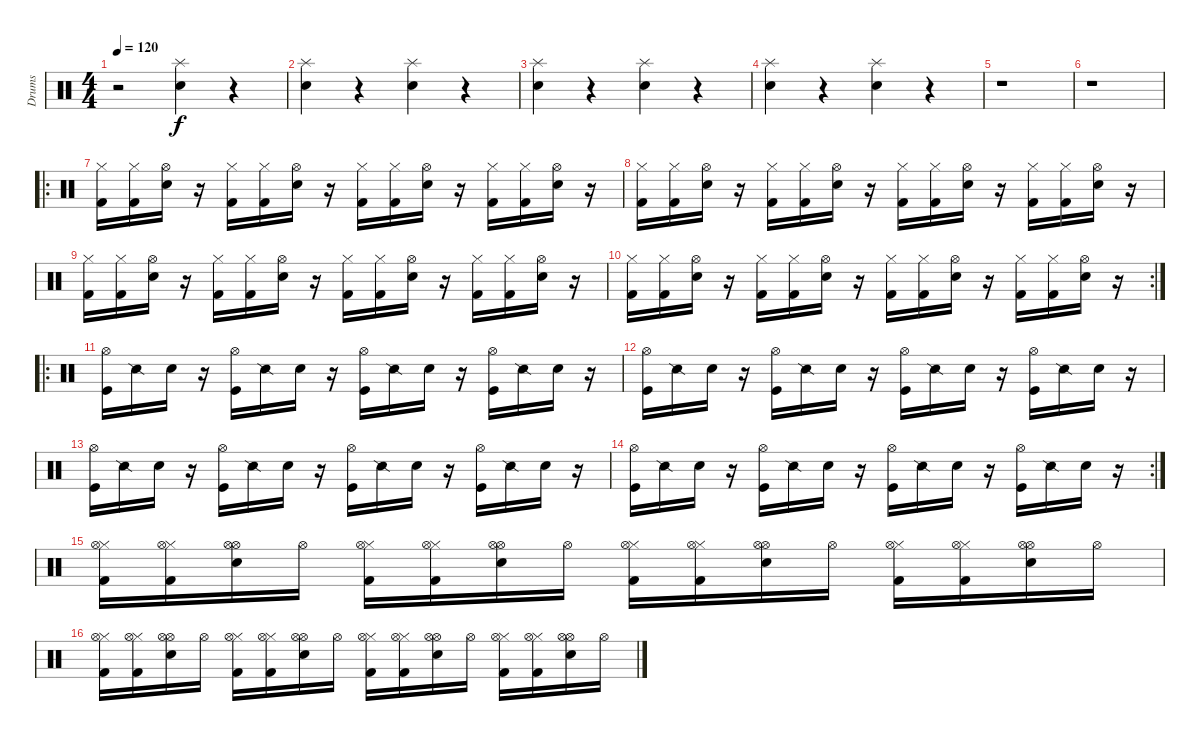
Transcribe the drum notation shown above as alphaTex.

\track ("Drums" "Drums") {instrument percussion}
\staff {score}
\articulation defaults
\ts (4 4)
\tempo 120
\tempo 100
\tempo 120
\clef neutral
\ks c
r.2{dy f} ("Splash (hit)" "Snare (hit) 2").4 r.4 |
("Splash (hit)" "Snare (hit) 2").4 r.4 ("Splash (hit)" "Snare (hit) 2").4 r.4 |
("Splash (hit)" "Snare (hit) 2").4 r.4 ("Splash (hit)" "Snare (hit) 2").4 r.4 |
("Splash (hit)" "Snare (hit) 2").4 r.4 ("Splash (hit)" "Snare (hit) 2").4 r.4 |
r.1 |
r.1 |
\ro
("Hi-Hat (closed)" "Kick (hit) 2").16 ("Hi-Hat (closed)" "Kick (hit) 2").16 ("Hi-Hat (open)" "Snare (hit) 2").16 r.16 ("Hi-Hat (closed)" "Kick (hit) 2").16 ("Hi-Hat (closed)" "Kick (hit) 2").16 ("Hi-Hat (open)" "Snare (hit) 2").16 r.16 ("Hi-Hat (closed)" "Kick (hit) 2").16 ("Hi-Hat (closed)" "Kick (hit) 2").16 ("Hi-Hat (open)" "Snare (hit) 2").16 r.16 ("Hi-Hat (closed)" "Kick (hit) 2").16 ("Hi-Hat (closed)" "Kick (hit) 2").16 ("Hi-Hat (open)" "Snare (hit) 2").16 r.16 |
("Hi-Hat (closed)" "Kick (hit) 2").16 ("Hi-Hat (closed)" "Kick (hit) 2").16 ("Hi-Hat (open)" "Snare (hit) 2").16 r.16 ("Hi-Hat (closed)" "Kick (hit) 2").16 ("Hi-Hat (closed)" "Kick (hit) 2").16 ("Hi-Hat (open)" "Snare (hit) 2").16 r.16 ("Hi-Hat (closed)" "Kick (hit) 2").16 ("Hi-Hat (closed)" "Kick (hit) 2").16 ("Hi-Hat (open)" "Snare (hit) 2").16 r.16 ("Hi-Hat (closed)" "Kick (hit) 2").16 ("Hi-Hat (closed)" "Kick (hit) 2").16 ("Hi-Hat (open)" "Snare (hit) 2").16 r.16 |
("Hi-Hat (closed)" "Kick (hit) 2").16 ("Hi-Hat (closed)" "Kick (hit) 2").16 ("Hi-Hat (open)" "Snare (hit) 2").16 r.16 ("Hi-Hat (closed)" "Kick (hit) 2").16 ("Hi-Hat (closed)" "Kick (hit) 2").16 ("Hi-Hat (open)" "Snare (hit) 2").16 r.16 ("Hi-Hat (closed)" "Kick (hit) 2").16 ("Hi-Hat (closed)" "Kick (hit) 2").16 ("Hi-Hat (open)" "Snare (hit) 2").16 r.16 ("Hi-Hat (closed)" "Kick (hit) 2").16 ("Hi-Hat (closed)" "Kick (hit) 2").16 ("Hi-Hat (open)" "Snare (hit) 2").16 r.16 |
\rc 2
("Hi-Hat (closed)" "Kick (hit) 2").16 ("Hi-Hat (closed)" "Kick (hit) 2").16 ("Hi-Hat (open)" "Snare (hit) 2").16 r.16 ("Hi-Hat (closed)" "Kick (hit) 2").16 ("Hi-Hat (closed)" "Kick (hit) 2").16 ("Hi-Hat (open)" "Snare (hit) 2").16 r.16 ("Hi-Hat (closed)" "Kick (hit) 2").16 ("Hi-Hat (closed)" "Kick (hit) 2").16 ("Hi-Hat (open)" "Snare (hit) 2").16 r.16 ("Hi-Hat (closed)" "Kick (hit) 2").16 ("Hi-Hat (closed)" "Kick (hit) 2").16 ("Hi-Hat (open)" "Snare (hit) 2").16 r.16 |
\ro
("Hi-Hat (open)" "Kick (hit)").16 "Snare (side stick) 2".16 "Snare (hit) 2".16 r.16 ("Hi-Hat (open)" "Kick (hit)").16 "Snare (side stick) 2".16 "Snare (hit) 2".16 r.16 ("Hi-Hat (open)" "Kick (hit)").16 "Snare (side stick) 2".16 "Snare (hit) 2".16 r.16 ("Hi-Hat (open)" "Kick (hit)").16 "Snare (side stick) 2".16 "Snare (hit) 2".16 r.16 |
("Hi-Hat (open)" "Kick (hit)").16 "Snare (side stick) 2".16 "Snare (hit) 2".16 r.16 ("Hi-Hat (open)" "Kick (hit)").16 "Snare (side stick) 2".16 "Snare (hit) 2".16 r.16 ("Hi-Hat (open)" "Kick (hit)").16 "Snare (side stick) 2".16 "Snare (hit) 2".16 r.16 ("Hi-Hat (open)" "Kick (hit)").16 "Snare (side stick) 2".16 "Snare (hit) 2".16 r.16 |
("Hi-Hat (open)" "Kick (hit)").16 "Snare (side stick) 2".16 "Snare (hit) 2".16 r.16 ("Hi-Hat (open)" "Kick (hit)").16 "Snare (side stick) 2".16 "Snare (hit) 2".16 r.16 ("Hi-Hat (open)" "Kick (hit)").16 "Snare (side stick) 2".16 "Snare (hit) 2".16 r.16 ("Hi-Hat (open)" "Kick (hit)").16 "Snare (side stick) 2".16 "Snare (hit) 2".16 r.16 |
\rc 2
("Hi-Hat (open)" "Kick (hit)").16 "Snare (side stick) 2".16 "Snare (hit) 2".16 r.16 ("Hi-Hat (open)" "Kick (hit)").16 "Snare (side stick) 2".16 "Snare (hit) 2".16 r.16 ("Hi-Hat (open)" "Kick (hit)").16 "Snare (side stick) 2".16 "Snare (hit) 2".16 r.16 ("Hi-Hat (open)" "Kick (hit)").16 "Snare (side stick) 2".16 "Snare (hit) 2".16 r.16 |
("Hi-Hat (closed)" "Kick (hit) 2" "Hi-Hat (open)").16 ("Hi-Hat (closed)" "Kick (hit) 2" "Hi-Hat (open)").16 ("Hi-Hat (open)" "Snare (hit) 2" "Hi-Hat (open)").16 "Hi-Hat (open)".16 ("Hi-Hat (closed)" "Kick (hit) 2" "Hi-Hat (open)").16 ("Hi-Hat (closed)" "Kick (hit) 2" "Hi-Hat (open)").16 ("Hi-Hat (open)" "Snare (hit) 2" "Hi-Hat (open)").16 "Hi-Hat (open)".16 ("Hi-Hat (closed)" "Kick (hit) 2" "Hi-Hat (open)").16 ("Hi-Hat (closed)" "Kick (hit) 2" "Hi-Hat (open)").16 ("Hi-Hat (open)" "Snare (hit) 2" "Hi-Hat (open)").16 "Hi-Hat (open)".16 ("Hi-Hat (closed)" "Kick (hit) 2" "Hi-Hat (open)").16 ("Hi-Hat (closed)" "Kick (hit) 2" "Hi-Hat (open)").16 ("Hi-Hat (open)" "Snare (hit) 2" "Hi-Hat (open)").16 "Hi-Hat (open)".16 |
("Hi-Hat (closed)" "Kick (hit) 2" "Hi-Hat (open)").16 ("Hi-Hat (closed)" "Kick (hit) 2" "Hi-Hat (open)").16 ("Hi-Hat (open)" "Snare (hit) 2" "Hi-Hat (open)").16 "Hi-Hat (open)".16 ("Hi-Hat (closed)" "Kick (hit) 2" "Hi-Hat (open)").16 ("Hi-Hat (closed)" "Kick (hit) 2" "Hi-Hat (open)").16 ("Hi-Hat (open)" "Snare (hit) 2" "Hi-Hat (open)").16 "Hi-Hat (open)".16 ("Hi-Hat (closed)" "Kick (hit) 2" "Hi-Hat (open)").16 ("Hi-Hat (closed)" "Kick (hit) 2" "Hi-Hat (open)").16 ("Hi-Hat (open)" "Snare (hit) 2" "Hi-Hat (open)").16 "Hi-Hat (open)".16 ("Hi-Hat (closed)" "Kick (hit) 2" "Hi-Hat (open)").16 ("Hi-Hat (closed)" "Kick (hit) 2" "Hi-Hat (open)").16 ("Hi-Hat (open)" "Snare (hit) 2" "Hi-Hat (open)").16 "Hi-Hat (open)".16
